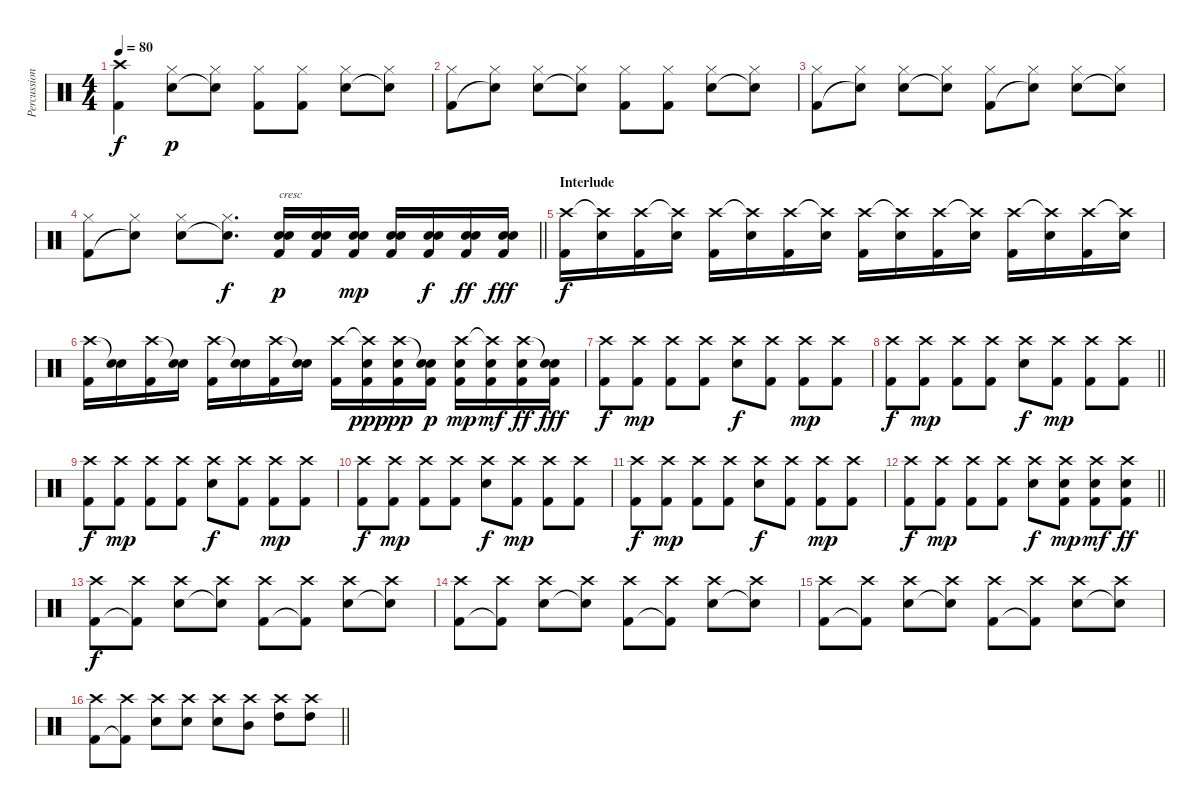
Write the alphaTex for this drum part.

\track ("Percussions" "Percussion") {instrument percussion}
\staff {score}
\articulation defaults
\ts (4 4)
\section ("" "")
\tempo 80
\clef neutral
\ks c
("Crash high (hit)" "Kick (hit) 2").4{dy f} ("Hi-Hat (closed)" "Electric Snare (hit)").8{dy p} ("Hi-Hat (closed)" "Snare (hit)"{t}).8 ("Hi-Hat (closed)" "Kick (hit) 2").8 ("Hi-Hat (closed)" "Kick (hit) 2").8 ("Hi-Hat (closed)" "Electric Snare (hit)").8 ("Hi-Hat (closed)" "Snare (hit)"{t}).8 |
("Hi-Hat (closed)" "Kick (hit) 2").8 ("Hi-Hat (closed)" "Snare (hit)"{t}).8 ("Hi-Hat (closed)" "Electric Snare (hit)").8 ("Hi-Hat (closed)" "Snare (hit)"{t}).8 ("Hi-Hat (closed)" "Kick (hit) 2").8 ("Hi-Hat (closed)" "Kick (hit) 2").8 ("Hi-Hat (closed)" "Electric Snare (hit)").8 ("Hi-Hat (closed)" "Snare (hit)"{t}).8 |
("Hi-Hat (closed)" "Kick (hit) 2").8 ("Hi-Hat (closed)" "Snare (hit)"{t}).8 ("Hi-Hat (closed)" "Electric Snare (hit)").8 ("Hi-Hat (closed)" "Snare (hit)"{t}).8 ("Hi-Hat (closed)" "Kick (hit) 2").8 ("Hi-Hat (closed)" "Snare (hit)"{t}).8 ("Hi-Hat (closed)" "Electric Snare (hit)").8 ("Hi-Hat (closed)" "Snare (hit)"{t}).8 |
\barLineRight lightlight
("Hi-Hat (closed)" "Kick (hit) 2").8 ("Hi-Hat (closed)" "Snare (hit)"{t}).8 ("Hi-Hat (closed)" "Electric Snare (hit)").8 ("Hi-Hat (closed)" "Snare (hit)"{t}).8{d dy f} ("Electric Snare (hit)" "Electric Snare (hit)" "Kick (hit) 2").16{txt "cresc" dy p} ("Electric Snare (hit)" "Electric Snare (hit)" "Kick (hit) 2").16 ("Electric Snare (hit)" "Electric Snare (hit)" "Kick (hit) 2").16{dy mp} ("Electric Snare (hit)" "Electric Snare (hit)" "Kick (hit) 2").16 ("Electric Snare (hit)" "Electric Snare (hit)" "Kick (hit) 2").16{dy f} ("Electric Snare (hit)" "Electric Snare (hit)" "Kick (hit) 2").16{dy ff} ("Electric Snare (hit)" "Electric Snare (hit)" "Kick (hit) 2").16{dy fff} |
\section ("" "Interlude")
("Crash high (hit)" "Kick (hit) 2").16{dy f} ("Crash high (hit)"{t} "Electric Snare (hit)").16 ("Crash high (hit)" "Kick (hit) 2").16 ("Crash high (hit)"{t} "Electric Snare (hit)").16 ("Crash high (hit)" "Kick (hit) 2").16 ("Crash high (hit)"{t} "Electric Snare (hit)").16 ("Crash high (hit)" "Kick (hit) 2").16 ("Crash high (hit)"{t} "Electric Snare (hit)").16 ("Crash high (hit)" "Kick (hit) 2").16 ("Crash high (hit)"{t} "Electric Snare (hit)").16 ("Crash high (hit)" "Kick (hit) 2").16 ("Crash high (hit)"{t} "Electric Snare (hit)").16 ("Crash high (hit)" "Kick (hit) 2").16 ("Crash high (hit)"{t} "Electric Snare (hit)").16 ("Crash high (hit)" "Kick (hit) 2").16 ("Crash high (hit)"{t} "Electric Snare (hit)").16 |
("Crash high (hit)" "Kick (hit) 2").16 ("Snare (hit)"{t} "Electric Snare (hit)").16 ("Crash high (hit)" "Kick (hit) 2").16 ("Snare (hit)"{t} "Electric Snare (hit)").16 ("Crash high (hit)" "Kick (hit) 2").16 ("Snare (hit)"{t} "Electric Snare (hit)").16 ("Crash high (hit)" "Kick (hit) 2").16 ("Snare (hit)"{t} "Electric Snare (hit)").16 ("Crash high (hit)" "Kick (hit) 2").16 ("Crash high (hit)"{t} "Electric Snare (hit)" "Kick (hit) 2").16{dy ppp} ("Crash high (hit)" "Electric Snare (hit)" "Kick (hit) 2").16{dy pp} ("Snare (hit)"{t} "Electric Snare (hit)" "Kick (hit) 2").16{dy p} ("Crash high (hit)" "Electric Snare (hit)" "Kick (hit) 2").16{dy mp} ("Crash high (hit)"{t} "Electric Snare (hit)" "Kick (hit) 2").16{dy mf} ("Crash high (hit)" "Electric Snare (hit)" "Kick (hit) 2").16{dy ff} ("Snare (hit)"{t} "Electric Snare (hit)" "Kick (hit) 2").16{dy fff} |
("Crash high (hit)" "Kick (hit) 2").8{dy f} ("Crash high (hit)" "Kick (hit) 2").8{dy mp} ("Crash high (hit)" "Kick (hit) 2").8 ("Crash high (hit)" "Kick (hit) 2").8 ("Crash high (hit)" "Electric Snare (hit)").8{dy f} ("Crash high (hit)" "Kick (hit) 2").8 ("Crash high (hit)" "Kick (hit) 2").8{dy mp} ("Crash high (hit)" "Kick (hit) 2").8 |
\barLineRight lightlight
("Crash high (hit)" "Kick (hit) 2").8{dy f} ("Crash high (hit)" "Kick (hit) 2").8{dy mp} ("Crash high (hit)" "Kick (hit) 2").8 ("Crash high (hit)" "Kick (hit) 2").8 ("Crash high (hit)" "Electric Snare (hit)").8{dy f} ("Crash high (hit)" "Kick (hit) 2").8{dy mp} ("Crash high (hit)" "Kick (hit) 2").8 ("Crash high (hit)" "Kick (hit) 2").8 |
\section ("" "")
("Crash high (hit)" "Kick (hit) 2").8{dy f} ("Crash high (hit)" "Kick (hit) 2").8{dy mp} ("Crash high (hit)" "Kick (hit) 2").8 ("Crash high (hit)" "Kick (hit) 2").8 ("Crash high (hit)" "Electric Snare (hit)").8{dy f} ("Crash high (hit)" "Kick (hit) 2").8 ("Crash high (hit)" "Kick (hit) 2").8{dy mp} ("Crash high (hit)" "Kick (hit) 2").8 |
("Crash high (hit)" "Kick (hit) 2").8{dy f} ("Crash high (hit)" "Kick (hit) 2").8{dy mp} ("Crash high (hit)" "Kick (hit) 2").8 ("Crash high (hit)" "Kick (hit) 2").8 ("Crash high (hit)" "Electric Snare (hit)").8{dy f} ("Crash high (hit)" "Kick (hit) 2").8{dy mp} ("Crash high (hit)" "Kick (hit) 2").8 ("Crash high (hit)" "Kick (hit) 2").8 |
("Crash high (hit)" "Kick (hit) 2").8{dy f} ("Crash high (hit)" "Kick (hit) 2").8{dy mp} ("Crash high (hit)" "Kick (hit) 2").8 ("Crash high (hit)" "Kick (hit) 2").8 ("Crash high (hit)" "Electric Snare (hit)").8{dy f} ("Crash high (hit)" "Kick (hit) 2").8 ("Crash high (hit)" "Kick (hit) 2").8{dy mp} ("Crash high (hit)" "Kick (hit) 2").8 |
\barLineRight lightlight
("Crash high (hit)" "Kick (hit) 2").8{dy f} ("Crash high (hit)" "Kick (hit) 2").8{dy mp} ("Crash high (hit)" "Kick (hit) 2").8 ("Crash high (hit)" "Kick (hit) 2").8 ("Crash high (hit)" "Electric Snare (hit)").8{dy f} ("Crash high (hit)" "Electric Snare (hit)" "Kick (hit) 2").8{dy mp} ("Crash high (hit)" "Electric Snare (hit)" "Kick (hit) 2").8{dy mf} ("Crash high (hit)" "Electric Snare (hit)" "Kick (hit) 2").8{dy ff} |
\section ("" "")
("Crash high (hit)" "Kick (hit) 2").8{dy f} ("Crash high (hit)" "Kick (hit) 2"{t}).8 ("Crash high (hit)" "Electric Snare (hit)").8 ("Crash high (hit)" "Snare (hit)"{t}).8 ("Crash high (hit)" "Kick (hit) 2").8 ("Crash high (hit)" "Kick (hit) 2"{t}).8 ("Crash high (hit)" "Electric Snare (hit)").8 ("Crash high (hit)" "Snare (hit)"{t}).8 |
("Crash high (hit)" "Kick (hit) 2").8 ("Crash high (hit)" "Kick (hit) 2"{t}).8 ("Crash high (hit)" "Electric Snare (hit)").8 ("Crash high (hit)" "Snare (hit)"{t}).8 ("Crash high (hit)" "Kick (hit) 2").8 ("Crash high (hit)" "Kick (hit) 2"{t}).8 ("Crash high (hit)" "Electric Snare (hit)").8 ("Crash high (hit)" "Electric Snare (hit)"{t}).8 |
("Crash high (hit)" "Kick (hit) 2").8 ("Crash high (hit)" "Kick (hit) 2"{t}).8 ("Crash high (hit)" "Electric Snare (hit)").8 ("Crash high (hit)" "Snare (hit)"{t}).8 ("Crash high (hit)" "Kick (hit) 2").8 ("Crash high (hit)" "Kick (hit) 2"{t}).8 ("Crash high (hit)" "Electric Snare (hit)").8 ("Crash high (hit)" "Snare (hit)"{t}).8 |
\barLineRight lightlight
("Crash high (hit)" "Kick (hit) 2").8 ("Crash high (hit)" "Kick (hit) 2"{t}).8 ("Crash high (hit)" "Electric Snare (hit)").8 ("Crash high (hit)" "Electric Snare (hit)").8 ("Crash high (hit)" "Electric Snare (hit)").8 ("Crash high (hit)" "Mid Tom (hit)").8 ("Crash high (hit)" "High Tom (hit)").8 ("Crash high (hit)" "High Tom (hit)").8
